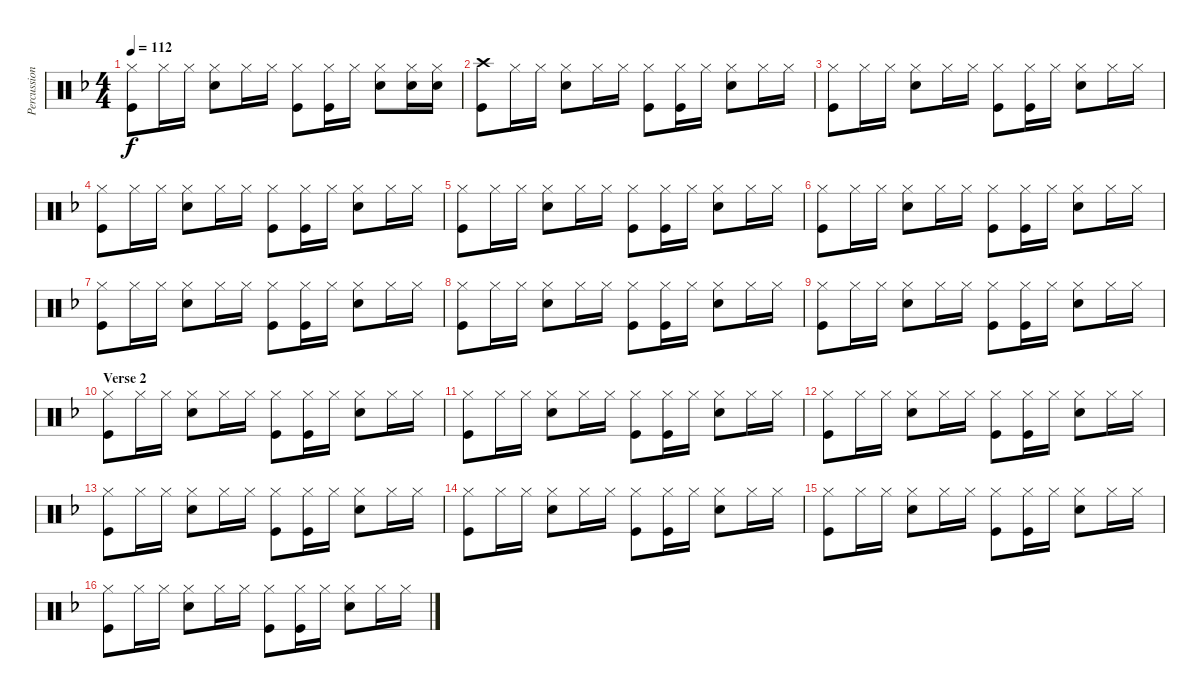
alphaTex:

\track ("Percussion" "Percussion") {instrument percussion}
\staff {score}
\articulation defaults
\ts (4 4)
\tempo 112
\clef neutral
\ks f
("Hi-Hat (closed)" "Kick (hit)").8{dy f} "Hi-Hat (closed)".16 "Hi-Hat (closed)".16 ("Hi-Hat (closed)" "Snare (hit) 2").8 "Hi-Hat (closed)".16 "Hi-Hat (closed)".16 ("Hi-Hat (closed)" "Kick (hit)").8 ("Hi-Hat (closed)" "Kick (hit)").16 "Hi-Hat (closed)".16 ("Hi-Hat (closed)" "Snare (hit) 2").8 ("Hi-Hat (closed)" "Snare (hit) 2").16 ("Hi-Hat (closed)" "Snare (hit) 2").16 |
("Crash high (hit)" "Kick (hit)").8 "Hi-Hat (closed)".16 "Hi-Hat (closed)".16 ("Hi-Hat (closed)" "Snare (hit) 2").8 "Hi-Hat (closed)".16 "Hi-Hat (closed)".16 ("Hi-Hat (closed)" "Kick (hit)").8 ("Hi-Hat (closed)" "Kick (hit)").16 "Hi-Hat (closed)".16 ("Hi-Hat (closed)" "Snare (hit) 2").8 "Hi-Hat (closed)".16 "Hi-Hat (closed)".16 |
("Hi-Hat (closed)" "Kick (hit)").8 "Hi-Hat (closed)".16 "Hi-Hat (closed)".16 ("Hi-Hat (closed)" "Snare (hit) 2").8 "Hi-Hat (closed)".16 "Hi-Hat (closed)".16 ("Hi-Hat (closed)" "Kick (hit)").8 ("Hi-Hat (closed)" "Kick (hit)").16 "Hi-Hat (closed)".16 ("Hi-Hat (closed)" "Snare (hit) 2").8 "Hi-Hat (closed)".16 "Hi-Hat (closed)".16 |
("Hi-Hat (closed)" "Kick (hit)").8 "Hi-Hat (closed)".16 "Hi-Hat (closed)".16 ("Hi-Hat (closed)" "Snare (hit) 2").8 "Hi-Hat (closed)".16 "Hi-Hat (closed)".16 ("Hi-Hat (closed)" "Kick (hit)").8 ("Hi-Hat (closed)" "Kick (hit)").16 "Hi-Hat (closed)".16 ("Hi-Hat (closed)" "Snare (hit) 2").8 "Hi-Hat (closed)".16 "Hi-Hat (closed)".16 |
("Hi-Hat (closed)" "Kick (hit)").8 "Hi-Hat (closed)".16 "Hi-Hat (closed)".16 ("Hi-Hat (closed)" "Snare (hit) 2").8 "Hi-Hat (closed)".16 "Hi-Hat (closed)".16 ("Hi-Hat (closed)" "Kick (hit)").8 ("Hi-Hat (closed)" "Kick (hit)").16 "Hi-Hat (closed)".16 ("Hi-Hat (closed)" "Snare (hit) 2").8 "Hi-Hat (closed)".16 "Hi-Hat (closed)".16 |
("Hi-Hat (closed)" "Kick (hit)").8 "Hi-Hat (closed)".16 "Hi-Hat (closed)".16 ("Hi-Hat (closed)" "Snare (hit) 2").8 "Hi-Hat (closed)".16 "Hi-Hat (closed)".16 ("Hi-Hat (closed)" "Kick (hit)").8 ("Hi-Hat (closed)" "Kick (hit)").16 "Hi-Hat (closed)".16 ("Hi-Hat (closed)" "Snare (hit) 2").8 "Hi-Hat (closed)".16 "Hi-Hat (closed)".16 |
("Hi-Hat (closed)" "Kick (hit)").8 "Hi-Hat (closed)".16 "Hi-Hat (closed)".16 ("Hi-Hat (closed)" "Snare (hit) 2").8 "Hi-Hat (closed)".16 "Hi-Hat (closed)".16 ("Hi-Hat (closed)" "Kick (hit)").8 ("Hi-Hat (closed)" "Kick (hit)").16 "Hi-Hat (closed)".16 ("Hi-Hat (closed)" "Snare (hit) 2").8 "Hi-Hat (closed)".16 "Hi-Hat (closed)".16 |
("Hi-Hat (closed)" "Kick (hit)").8 "Hi-Hat (closed)".16 "Hi-Hat (closed)".16 ("Hi-Hat (closed)" "Snare (hit) 2").8 "Hi-Hat (closed)".16 "Hi-Hat (closed)".16 ("Hi-Hat (closed)" "Kick (hit)").8 ("Hi-Hat (closed)" "Kick (hit)").16 "Hi-Hat (closed)".16 ("Hi-Hat (closed)" "Snare (hit) 2").8 "Hi-Hat (closed)".16 "Hi-Hat (closed)".16 |
("Hi-Hat (closed)" "Kick (hit)").8 "Hi-Hat (closed)".16 "Hi-Hat (closed)".16 ("Hi-Hat (closed)" "Snare (hit) 2").8 "Hi-Hat (closed)".16 "Hi-Hat (closed)".16 ("Hi-Hat (closed)" "Kick (hit)").8 ("Hi-Hat (closed)" "Kick (hit)").16 "Hi-Hat (closed)".16 ("Hi-Hat (closed)" "Snare (hit) 2").8 "Hi-Hat (closed)".16 "Hi-Hat (closed)".16 |
\section ("" "Verse 2")
("Hi-Hat (closed)" "Kick (hit)").8 "Hi-Hat (closed)".16 "Hi-Hat (closed)".16 ("Hi-Hat (closed)" "Snare (hit) 2").8 "Hi-Hat (closed)".16 "Hi-Hat (closed)".16 ("Hi-Hat (closed)" "Kick (hit)").8 ("Hi-Hat (closed)" "Kick (hit)").16 "Hi-Hat (closed)".16 ("Hi-Hat (closed)" "Snare (hit) 2").8 "Hi-Hat (closed)".16 "Hi-Hat (closed)".16 |
("Hi-Hat (closed)" "Kick (hit)").8 "Hi-Hat (closed)".16 "Hi-Hat (closed)".16 ("Hi-Hat (closed)" "Snare (hit) 2").8 "Hi-Hat (closed)".16 "Hi-Hat (closed)".16 ("Hi-Hat (closed)" "Kick (hit)").8 ("Hi-Hat (closed)" "Kick (hit)").16 "Hi-Hat (closed)".16 ("Hi-Hat (closed)" "Snare (hit) 2").8 "Hi-Hat (closed)".16 "Hi-Hat (closed)".16 |
("Hi-Hat (closed)" "Kick (hit)").8 "Hi-Hat (closed)".16 "Hi-Hat (closed)".16 ("Hi-Hat (closed)" "Snare (hit) 2").8 "Hi-Hat (closed)".16 "Hi-Hat (closed)".16 ("Hi-Hat (closed)" "Kick (hit)").8 ("Hi-Hat (closed)" "Kick (hit)").16 "Hi-Hat (closed)".16 ("Hi-Hat (closed)" "Snare (hit) 2").8 "Hi-Hat (closed)".16 "Hi-Hat (closed)".16 |
("Hi-Hat (closed)" "Kick (hit)").8 "Hi-Hat (closed)".16 "Hi-Hat (closed)".16 ("Hi-Hat (closed)" "Snare (hit) 2").8 "Hi-Hat (closed)".16 "Hi-Hat (closed)".16 ("Hi-Hat (closed)" "Kick (hit)").8 ("Hi-Hat (closed)" "Kick (hit)").16 "Hi-Hat (closed)".16 ("Hi-Hat (closed)" "Snare (hit) 2").8 "Hi-Hat (closed)".16 "Hi-Hat (closed)".16 |
("Hi-Hat (closed)" "Kick (hit)").8 "Hi-Hat (closed)".16 "Hi-Hat (closed)".16 ("Hi-Hat (closed)" "Snare (hit) 2").8 "Hi-Hat (closed)".16 "Hi-Hat (closed)".16 ("Hi-Hat (closed)" "Kick (hit)").8 ("Hi-Hat (closed)" "Kick (hit)").16 "Hi-Hat (closed)".16 ("Hi-Hat (closed)" "Snare (hit) 2").8 "Hi-Hat (closed)".16 "Hi-Hat (closed)".16 |
("Hi-Hat (closed)" "Kick (hit)").8 "Hi-Hat (closed)".16 "Hi-Hat (closed)".16 ("Hi-Hat (closed)" "Snare (hit) 2").8 "Hi-Hat (closed)".16 "Hi-Hat (closed)".16 ("Hi-Hat (closed)" "Kick (hit)").8 ("Hi-Hat (closed)" "Kick (hit)").16 "Hi-Hat (closed)".16 ("Hi-Hat (closed)" "Snare (hit) 2").8 "Hi-Hat (closed)".16 "Hi-Hat (closed)".16 |
("Hi-Hat (closed)" "Kick (hit)").8 "Hi-Hat (closed)".16 "Hi-Hat (closed)".16 ("Hi-Hat (closed)" "Snare (hit) 2").8 "Hi-Hat (closed)".16 "Hi-Hat (closed)".16 ("Hi-Hat (closed)" "Kick (hit)").8 ("Hi-Hat (closed)" "Kick (hit)").16 "Hi-Hat (closed)".16 ("Hi-Hat (closed)" "Snare (hit) 2").8 "Hi-Hat (closed)".16 "Hi-Hat (closed)".16
